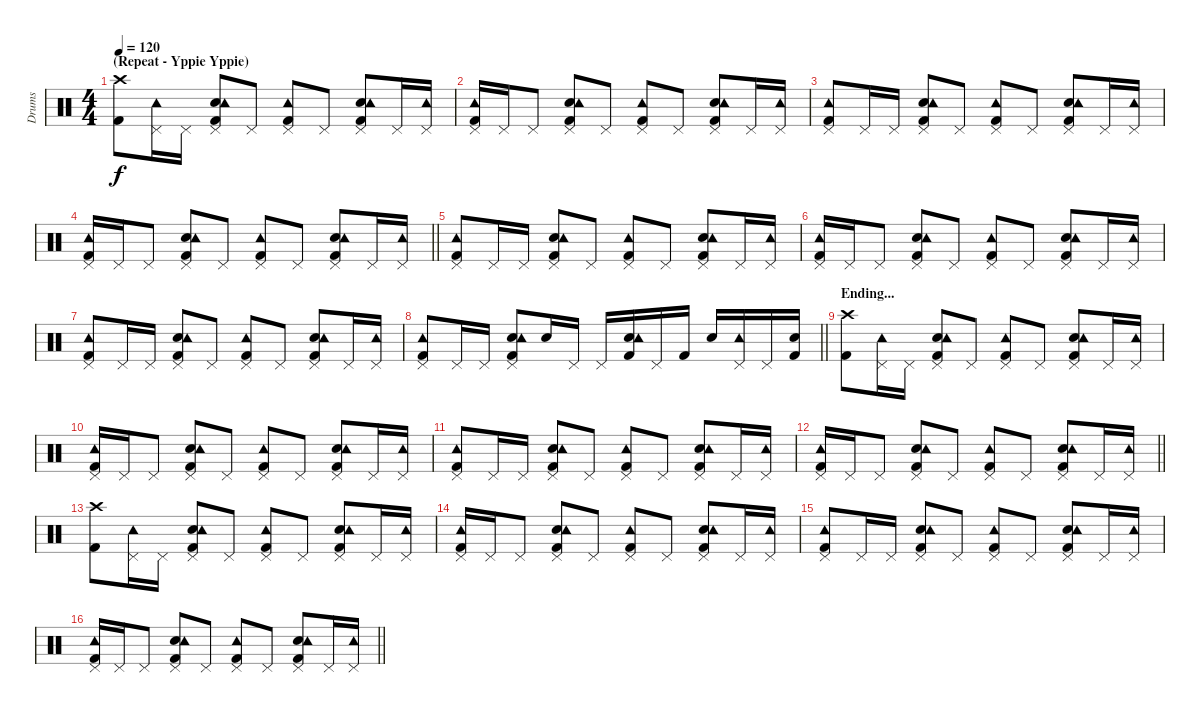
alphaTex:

\track ("Drums" "Drums") {instrument percussion}
\staff {score}
\articulation defaults
\ts (4 4)
\section ("" "(Repeat - Yppie Yppie)")
\tempo 120
\clef neutral
\ks c
("Kick (hit) 2" "Crash high (hit)").8{dy f} ("Tambourine (hit)" "Pedal Hi-Hat (hit)").16 "Pedal Hi-Hat (hit)".16 ("Kick (hit) 2" "Snare (hit) 2" "Tambourine (hit)" "Pedal Hi-Hat (hit)").8 "Pedal Hi-Hat (hit)".8 ("Kick (hit) 2" "Tambourine (hit)" "Pedal Hi-Hat (hit)").8 "Pedal Hi-Hat (hit)".8 ("Kick (hit) 2" "Snare (hit) 2" "Tambourine (hit)" "Pedal Hi-Hat (hit)").8 "Pedal Hi-Hat (hit)".16 ("Tambourine (hit)" "Pedal Hi-Hat (hit)").16 |
("Kick (hit) 2" "Tambourine (hit)" "Pedal Hi-Hat (hit)").16 "Pedal Hi-Hat (hit)".16 "Pedal Hi-Hat (hit)".8 ("Kick (hit) 2" "Snare (hit) 2" "Tambourine (hit)" "Pedal Hi-Hat (hit)").8 "Pedal Hi-Hat (hit)".8 ("Kick (hit) 2" "Tambourine (hit)" "Pedal Hi-Hat (hit)").8 "Pedal Hi-Hat (hit)".8 ("Kick (hit) 2" "Snare (hit) 2" "Tambourine (hit)" "Pedal Hi-Hat (hit)").8 "Pedal Hi-Hat (hit)".16 ("Tambourine (hit)" "Pedal Hi-Hat (hit)").16 |
("Kick (hit) 2" "Tambourine (hit)" "Pedal Hi-Hat (hit)").8 "Pedal Hi-Hat (hit)".16 "Pedal Hi-Hat (hit)".16 ("Kick (hit) 2" "Snare (hit) 2" "Tambourine (hit)" "Pedal Hi-Hat (hit)").8 "Pedal Hi-Hat (hit)".8 ("Kick (hit) 2" "Tambourine (hit)" "Pedal Hi-Hat (hit)").8 "Pedal Hi-Hat (hit)".8 ("Kick (hit) 2" "Snare (hit) 2" "Tambourine (hit)" "Pedal Hi-Hat (hit)").8 "Pedal Hi-Hat (hit)".16 ("Tambourine (hit)" "Pedal Hi-Hat (hit)").16 |
\barLineRight lightlight
("Kick (hit) 2" "Tambourine (hit)" "Pedal Hi-Hat (hit)").16 "Pedal Hi-Hat (hit)".16 "Pedal Hi-Hat (hit)".8 ("Kick (hit) 2" "Snare (hit) 2" "Tambourine (hit)" "Pedal Hi-Hat (hit)").8 "Pedal Hi-Hat (hit)".8 ("Kick (hit) 2" "Tambourine (hit)" "Pedal Hi-Hat (hit)").8 "Pedal Hi-Hat (hit)".8 ("Kick (hit) 2" "Snare (hit) 2" "Tambourine (hit)" "Pedal Hi-Hat (hit)").8 "Pedal Hi-Hat (hit)".16 ("Tambourine (hit)" "Pedal Hi-Hat (hit)").16 |
("Kick (hit) 2" "Tambourine (hit)" "Pedal Hi-Hat (hit)").8 "Pedal Hi-Hat (hit)".16 "Pedal Hi-Hat (hit)".16 ("Kick (hit) 2" "Snare (hit) 2" "Tambourine (hit)" "Pedal Hi-Hat (hit)").8 "Pedal Hi-Hat (hit)".8 ("Kick (hit) 2" "Tambourine (hit)" "Pedal Hi-Hat (hit)").8 "Pedal Hi-Hat (hit)".8 ("Kick (hit) 2" "Snare (hit) 2" "Tambourine (hit)" "Pedal Hi-Hat (hit)").8 "Pedal Hi-Hat (hit)".16 ("Tambourine (hit)" "Pedal Hi-Hat (hit)").16 |
("Kick (hit) 2" "Tambourine (hit)" "Pedal Hi-Hat (hit)").16 "Pedal Hi-Hat (hit)".16 "Pedal Hi-Hat (hit)".8 ("Kick (hit) 2" "Snare (hit) 2" "Tambourine (hit)" "Pedal Hi-Hat (hit)").8 "Pedal Hi-Hat (hit)".8 ("Kick (hit) 2" "Tambourine (hit)" "Pedal Hi-Hat (hit)").8 "Pedal Hi-Hat (hit)".8 ("Kick (hit) 2" "Snare (hit) 2" "Tambourine (hit)" "Pedal Hi-Hat (hit)").8 "Pedal Hi-Hat (hit)".16 ("Tambourine (hit)" "Pedal Hi-Hat (hit)").16 |
("Kick (hit) 2" "Tambourine (hit)" "Pedal Hi-Hat (hit)").8 "Pedal Hi-Hat (hit)".16 "Pedal Hi-Hat (hit)".16 ("Kick (hit) 2" "Snare (hit) 2" "Tambourine (hit)" "Pedal Hi-Hat (hit)").8 "Pedal Hi-Hat (hit)".8 ("Kick (hit) 2" "Tambourine (hit)" "Pedal Hi-Hat (hit)").8 "Pedal Hi-Hat (hit)".8 ("Kick (hit) 2" "Snare (hit) 2" "Tambourine (hit)" "Pedal Hi-Hat (hit)").8 "Pedal Hi-Hat (hit)".16 ("Tambourine (hit)" "Pedal Hi-Hat (hit)").16 |
\barLineRight lightlight
("Kick (hit) 2" "Tambourine (hit)" "Pedal Hi-Hat (hit)").8 "Pedal Hi-Hat (hit)".16 "Pedal Hi-Hat (hit)".16 ("Kick (hit) 2" "Snare (hit) 2" "Tambourine (hit)" "Pedal Hi-Hat (hit)").8 "Snare (hit) 2".16 "Pedal Hi-Hat (hit)".16 "Pedal Hi-Hat (hit)".16 ("Kick (hit) 2" "Snare (hit) 2" "Tambourine (hit)").16 "Pedal Hi-Hat (hit)".16 "Kick (hit) 2".16 "Snare (hit) 2".16 ("Tambourine (hit)" "Pedal Hi-Hat (hit)").16 "Pedal Hi-Hat (hit)".16 ("Kick (hit) 2" "Snare (hit) 2").16 |
\section ("" "Ending...")
("Kick (hit) 2" "Crash high (hit)").8 ("Tambourine (hit)" "Pedal Hi-Hat (hit)").16 "Pedal Hi-Hat (hit)".16 ("Kick (hit) 2" "Snare (hit) 2" "Tambourine (hit)" "Pedal Hi-Hat (hit)").8 "Pedal Hi-Hat (hit)".8 ("Kick (hit) 2" "Tambourine (hit)" "Pedal Hi-Hat (hit)").8 "Pedal Hi-Hat (hit)".8 ("Kick (hit) 2" "Snare (hit) 2" "Tambourine (hit)" "Pedal Hi-Hat (hit)").8 "Pedal Hi-Hat (hit)".16 ("Tambourine (hit)" "Pedal Hi-Hat (hit)").16 |
("Kick (hit) 2" "Tambourine (hit)" "Pedal Hi-Hat (hit)").16 "Pedal Hi-Hat (hit)".16 "Pedal Hi-Hat (hit)".8 ("Kick (hit) 2" "Snare (hit) 2" "Tambourine (hit)" "Pedal Hi-Hat (hit)").8 "Pedal Hi-Hat (hit)".8 ("Kick (hit) 2" "Tambourine (hit)" "Pedal Hi-Hat (hit)").8 "Pedal Hi-Hat (hit)".8 ("Kick (hit) 2" "Snare (hit) 2" "Tambourine (hit)" "Pedal Hi-Hat (hit)").8 "Pedal Hi-Hat (hit)".16 ("Tambourine (hit)" "Pedal Hi-Hat (hit)").16 |
("Kick (hit) 2" "Tambourine (hit)" "Pedal Hi-Hat (hit)").8 "Pedal Hi-Hat (hit)".16 "Pedal Hi-Hat (hit)".16 ("Kick (hit) 2" "Snare (hit) 2" "Tambourine (hit)" "Pedal Hi-Hat (hit)").8 "Pedal Hi-Hat (hit)".8 ("Kick (hit) 2" "Tambourine (hit)" "Pedal Hi-Hat (hit)").8 "Pedal Hi-Hat (hit)".8 ("Kick (hit) 2" "Snare (hit) 2" "Tambourine (hit)" "Pedal Hi-Hat (hit)").8 "Pedal Hi-Hat (hit)".16 ("Tambourine (hit)" "Pedal Hi-Hat (hit)").16 |
\barLineRight lightlight
("Kick (hit) 2" "Tambourine (hit)" "Pedal Hi-Hat (hit)").16 "Pedal Hi-Hat (hit)".16 "Pedal Hi-Hat (hit)".8 ("Kick (hit) 2" "Snare (hit) 2" "Tambourine (hit)" "Pedal Hi-Hat (hit)").8 "Pedal Hi-Hat (hit)".8 ("Kick (hit) 2" "Tambourine (hit)" "Pedal Hi-Hat (hit)").8 "Pedal Hi-Hat (hit)".8 ("Kick (hit) 2" "Snare (hit) 2" "Tambourine (hit)" "Pedal Hi-Hat (hit)").8 "Pedal Hi-Hat (hit)".16 ("Tambourine (hit)" "Pedal Hi-Hat (hit)").16 |
("Kick (hit) 2" "Crash high (hit)").8 ("Tambourine (hit)" "Pedal Hi-Hat (hit)").16 "Pedal Hi-Hat (hit)".16 ("Kick (hit) 2" "Snare (hit) 2" "Tambourine (hit)" "Pedal Hi-Hat (hit)").8 "Pedal Hi-Hat (hit)".8 ("Kick (hit) 2" "Tambourine (hit)" "Pedal Hi-Hat (hit)").8 "Pedal Hi-Hat (hit)".8 ("Kick (hit) 2" "Snare (hit) 2" "Tambourine (hit)" "Pedal Hi-Hat (hit)").8 "Pedal Hi-Hat (hit)".16 ("Tambourine (hit)" "Pedal Hi-Hat (hit)").16 |
("Kick (hit) 2" "Tambourine (hit)" "Pedal Hi-Hat (hit)").16 "Pedal Hi-Hat (hit)".16 "Pedal Hi-Hat (hit)".8 ("Kick (hit) 2" "Snare (hit) 2" "Tambourine (hit)" "Pedal Hi-Hat (hit)").8 "Pedal Hi-Hat (hit)".8 ("Kick (hit) 2" "Tambourine (hit)" "Pedal Hi-Hat (hit)").8 "Pedal Hi-Hat (hit)".8 ("Kick (hit) 2" "Snare (hit) 2" "Tambourine (hit)" "Pedal Hi-Hat (hit)").8 "Pedal Hi-Hat (hit)".16 ("Tambourine (hit)" "Pedal Hi-Hat (hit)").16 |
("Kick (hit) 2" "Tambourine (hit)" "Pedal Hi-Hat (hit)").8 "Pedal Hi-Hat (hit)".16 "Pedal Hi-Hat (hit)".16 ("Kick (hit) 2" "Snare (hit) 2" "Tambourine (hit)" "Pedal Hi-Hat (hit)").8 "Pedal Hi-Hat (hit)".8 ("Kick (hit) 2" "Tambourine (hit)" "Pedal Hi-Hat (hit)").8 "Pedal Hi-Hat (hit)".8 ("Kick (hit) 2" "Snare (hit) 2" "Tambourine (hit)" "Pedal Hi-Hat (hit)").8 "Pedal Hi-Hat (hit)".16 ("Tambourine (hit)" "Pedal Hi-Hat (hit)").16 |
\barLineRight lightlight
("Kick (hit) 2" "Tambourine (hit)" "Pedal Hi-Hat (hit)").16 "Pedal Hi-Hat (hit)".16 "Pedal Hi-Hat (hit)".8 ("Kick (hit) 2" "Snare (hit) 2" "Tambourine (hit)" "Pedal Hi-Hat (hit)").8 "Pedal Hi-Hat (hit)".8 ("Kick (hit) 2" "Tambourine (hit)" "Pedal Hi-Hat (hit)").8 "Pedal Hi-Hat (hit)".8 ("Kick (hit) 2" "Snare (hit) 2" "Tambourine (hit)" "Pedal Hi-Hat (hit)").8 "Pedal Hi-Hat (hit)".16 ("Tambourine (hit)" "Pedal Hi-Hat (hit)").16
